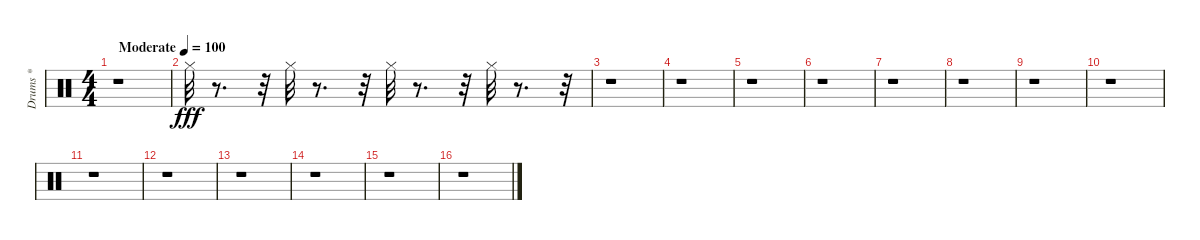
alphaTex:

\track ("Drums *" "Drums *") {instrument percussion}
\staff {score}
\articulation defaults
\ts (4 4)
\tempo (100 "Moderate")
\clef neutral
\ks c
r.1{dy fff} |
"Hi-Hat (closed)".32 r.8{d} r.32 "Hi-Hat (closed)".32 r.8{d} r.32 "Hi-Hat (closed)".32 r.8{d} r.32 "Hi-Hat (closed)".32 r.8{d} r.32 |
r.1 |
r.1 |
r.1 |
r.1 |
r.1 |
r.1 |
r.1 |
r.1 |
r.1 |
r.1 |
r.1 |
r.1 |
r.1 |
r.1
